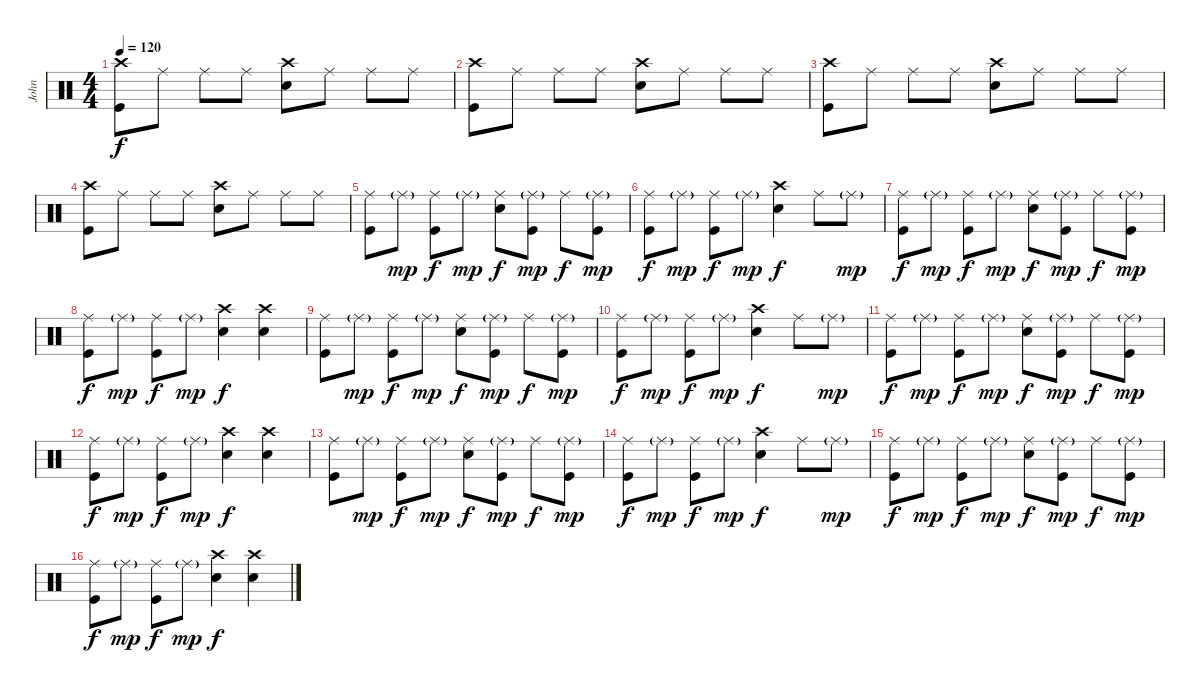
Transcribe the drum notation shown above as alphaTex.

\track ("John" "John") {instrument percussion}
\staff {score}
\articulation defaults
\ts (4 4)
\tempo 120
\clef neutral
\ks c
("Crash high (hit)" "Kick (hit)").8{dy f} "Ride (middle)".8 "Ride (middle)".8 "Ride (middle)".8 ("Crash high (hit)" "Snare (hit) 2").8 "Ride (middle)".8 "Ride (middle)".8 "Ride (middle)".8 |
("Crash high (hit)" "Kick (hit)").8 "Ride (middle)".8 "Ride (middle)".8 "Ride (middle)".8 ("Crash high (hit)" "Snare (hit) 2").8 "Ride (middle)".8 "Ride (middle)".8 "Ride (middle)".8 |
("Crash high (hit)" "Kick (hit)").8 "Ride (middle)".8 "Ride (middle)".8 "Ride (middle)".8 ("Crash high (hit)" "Snare (hit) 2").8 "Ride (middle)".8 "Ride (middle)".8 "Ride (middle)".8 |
("Crash high (hit)" "Kick (hit)").8 "Ride (middle)".8 "Ride (middle)".8 "Ride (middle)".8 ("Crash high (hit)" "Snare (hit) 2").8 "Ride (middle)".8 "Ride (middle)".8 "Ride (middle)".8 |
("Ride (middle)" "Kick (hit)").8 "Ride (middle)"{g}.8{dy mp} ("Ride (middle)" "Kick (hit)").8{dy f} "Ride (middle)"{g}.8{dy mp} ("Ride (middle)" "Snare (hit) 2").8{dy f} ("Ride (middle)"{g} "Kick (hit)").8{dy mp} "Ride (middle)".8{dy f} ("Ride (middle)"{g} "Kick (hit)").8{dy mp} |
("Ride (middle)" "Kick (hit)").8{dy f} "Ride (middle)"{g}.8{dy mp} ("Ride (middle)" "Kick (hit)").8{dy f} "Ride (middle)"{g}.8{dy mp} ("Crash high (hit)" "Snare (hit) 2").4{dy f} "Ride (middle)".8 "Ride (middle)"{g}.8{dy mp} |
("Ride (middle)" "Kick (hit)").8{dy f} "Ride (middle)"{g}.8{dy mp} ("Ride (middle)" "Kick (hit)").8{dy f} "Ride (middle)"{g}.8{dy mp} ("Ride (middle)" "Snare (hit) 2").8{dy f} ("Ride (middle)"{g} "Kick (hit)").8{dy mp} "Ride (middle)".8{dy f} ("Ride (middle)"{g} "Kick (hit)").8{dy mp} |
("Ride (middle)" "Kick (hit)").8{dy f} "Ride (middle)"{g}.8{dy mp} ("Ride (middle)" "Kick (hit)").8{dy f} "Ride (middle)"{g}.8{dy mp} ("Crash high (hit)" "Snare (hit) 2").4{dy f} ("Crash high (hit)" "Snare (hit) 2").4 |
("Ride (middle)" "Kick (hit)").8 "Ride (middle)"{g}.8{dy mp} ("Ride (middle)" "Kick (hit)").8{dy f} "Ride (middle)"{g}.8{dy mp} ("Ride (middle)" "Snare (hit) 2").8{dy f} ("Ride (middle)"{g} "Kick (hit)").8{dy mp} "Ride (middle)".8{dy f} ("Ride (middle)"{g} "Kick (hit)").8{dy mp} |
("Ride (middle)" "Kick (hit)").8{dy f} "Ride (middle)"{g}.8{dy mp} ("Ride (middle)" "Kick (hit)").8{dy f} "Ride (middle)"{g}.8{dy mp} ("Crash high (hit)" "Snare (hit) 2").4{dy f} "Ride (middle)".8 "Ride (middle)"{g}.8{dy mp} |
("Ride (middle)" "Kick (hit)").8{dy f} "Ride (middle)"{g}.8{dy mp} ("Ride (middle)" "Kick (hit)").8{dy f} "Ride (middle)"{g}.8{dy mp} ("Ride (middle)" "Snare (hit) 2").8{dy f} ("Ride (middle)"{g} "Kick (hit)").8{dy mp} "Ride (middle)".8{dy f} ("Ride (middle)"{g} "Kick (hit)").8{dy mp} |
("Ride (middle)" "Kick (hit)").8{dy f} "Ride (middle)"{g}.8{dy mp} ("Ride (middle)" "Kick (hit)").8{dy f} "Ride (middle)"{g}.8{dy mp} ("Crash high (hit)" "Snare (hit) 2").4{dy f} ("Crash high (hit)" "Snare (hit) 2").4 |
("Ride (middle)" "Kick (hit)").8 "Ride (middle)"{g}.8{dy mp} ("Ride (middle)" "Kick (hit)").8{dy f} "Ride (middle)"{g}.8{dy mp} ("Ride (middle)" "Snare (hit) 2").8{dy f} ("Ride (middle)"{g} "Kick (hit)").8{dy mp} "Ride (middle)".8{dy f} ("Ride (middle)"{g} "Kick (hit)").8{dy mp} |
("Ride (middle)" "Kick (hit)").8{dy f} "Ride (middle)"{g}.8{dy mp} ("Ride (middle)" "Kick (hit)").8{dy f} "Ride (middle)"{g}.8{dy mp} ("Crash high (hit)" "Snare (hit) 2").4{dy f} "Ride (middle)".8 "Ride (middle)"{g}.8{dy mp} |
("Ride (middle)" "Kick (hit)").8{dy f} "Ride (middle)"{g}.8{dy mp} ("Ride (middle)" "Kick (hit)").8{dy f} "Ride (middle)"{g}.8{dy mp} ("Ride (middle)" "Snare (hit) 2").8{dy f} ("Ride (middle)"{g} "Kick (hit)").8{dy mp} "Ride (middle)".8{dy f} ("Ride (middle)"{g} "Kick (hit)").8{dy mp} |
("Ride (middle)" "Kick (hit)").8{dy f} "Ride (middle)"{g}.8{dy mp} ("Ride (middle)" "Kick (hit)").8{dy f} "Ride (middle)"{g}.8{dy mp} ("Crash high (hit)" "Snare (hit) 2").4{dy f} ("Crash high (hit)" "Snare (hit) 2").4
